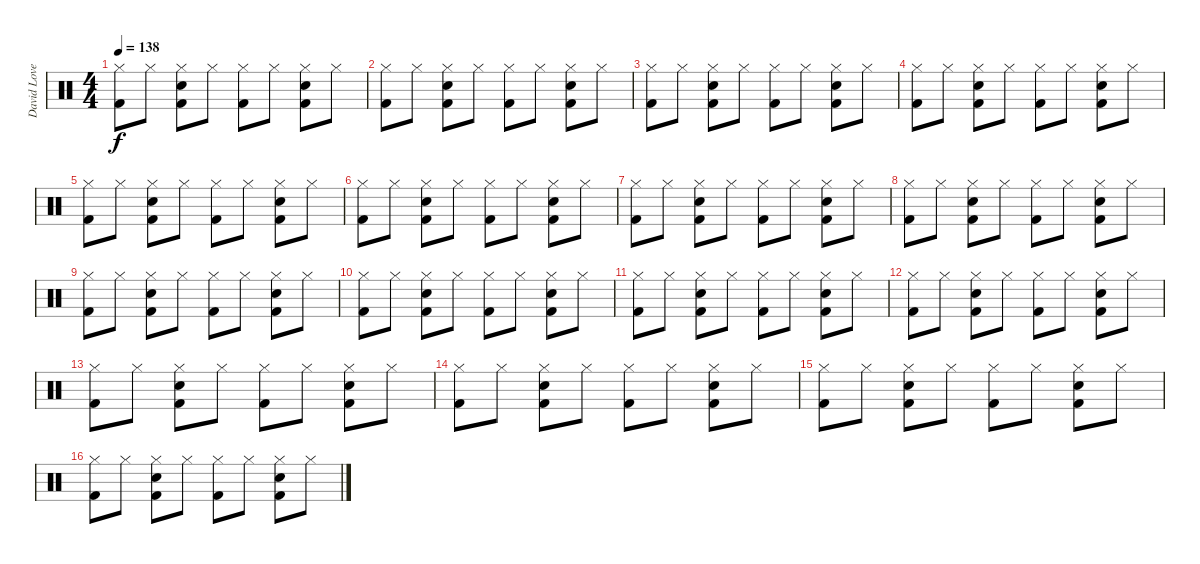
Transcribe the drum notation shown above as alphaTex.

\track ("David Lovering" "David Love") {instrument percussion}
\staff {score}
\articulation defaults
\ts (4 4)
\section ("" "")
\tempo 138
\clef neutral
\ks c
("Hi-Hat (closed)" "Kick (hit) 2").8{dy f} "Hi-Hat (closed)".8 ("Hi-Hat (closed)" "Electric Snare (hit)" "Kick (hit) 2").8 "Hi-Hat (closed)".8 ("Hi-Hat (closed)" "Kick (hit) 2").8 "Hi-Hat (closed)".8 ("Hi-Hat (closed)" "Electric Snare (hit)" "Kick (hit) 2").8 "Hi-Hat (closed)".8 |
("Hi-Hat (closed)" "Kick (hit) 2").8 "Hi-Hat (closed)".8 ("Hi-Hat (closed)" "Electric Snare (hit)" "Kick (hit) 2").8 "Hi-Hat (closed)".8 ("Hi-Hat (closed)" "Kick (hit) 2").8 "Hi-Hat (closed)".8 ("Hi-Hat (closed)" "Electric Snare (hit)" "Kick (hit) 2").8 "Hi-Hat (closed)".8 |
("Hi-Hat (closed)" "Kick (hit) 2").8 "Hi-Hat (closed)".8 ("Hi-Hat (closed)" "Electric Snare (hit)" "Kick (hit) 2").8 "Hi-Hat (closed)".8 ("Hi-Hat (closed)" "Kick (hit) 2").8 "Hi-Hat (closed)".8 ("Hi-Hat (closed)" "Electric Snare (hit)" "Kick (hit) 2").8 "Hi-Hat (closed)".8 |
("Hi-Hat (closed)" "Kick (hit) 2").8 "Hi-Hat (closed)".8 ("Hi-Hat (closed)" "Electric Snare (hit)" "Kick (hit) 2").8 "Hi-Hat (closed)".8 ("Hi-Hat (closed)" "Kick (hit) 2").8 "Hi-Hat (closed)".8 ("Hi-Hat (closed)" "Electric Snare (hit)" "Kick (hit) 2").8 "Hi-Hat (closed)".8 |
("Hi-Hat (closed)" "Kick (hit) 2").8 "Hi-Hat (closed)".8 ("Hi-Hat (closed)" "Electric Snare (hit)" "Kick (hit) 2").8 "Hi-Hat (closed)".8 ("Hi-Hat (closed)" "Kick (hit) 2").8 "Hi-Hat (closed)".8 ("Hi-Hat (closed)" "Electric Snare (hit)" "Kick (hit) 2").8 "Hi-Hat (closed)".8 |
("Hi-Hat (closed)" "Kick (hit) 2").8 "Hi-Hat (closed)".8 ("Hi-Hat (closed)" "Electric Snare (hit)" "Kick (hit) 2").8 "Hi-Hat (closed)".8 ("Hi-Hat (closed)" "Kick (hit) 2").8 "Hi-Hat (closed)".8 ("Hi-Hat (closed)" "Electric Snare (hit)" "Kick (hit) 2").8 "Hi-Hat (closed)".8 |
("Hi-Hat (closed)" "Kick (hit) 2").8 "Hi-Hat (closed)".8 ("Hi-Hat (closed)" "Electric Snare (hit)" "Kick (hit) 2").8 "Hi-Hat (closed)".8 ("Hi-Hat (closed)" "Kick (hit) 2").8 "Hi-Hat (closed)".8 ("Hi-Hat (closed)" "Electric Snare (hit)" "Kick (hit) 2").8 "Hi-Hat (closed)".8 |
("Hi-Hat (closed)" "Kick (hit) 2").8 "Hi-Hat (closed)".8 ("Hi-Hat (closed)" "Electric Snare (hit)" "Kick (hit) 2").8 "Hi-Hat (closed)".8 ("Hi-Hat (closed)" "Kick (hit) 2").8 "Hi-Hat (closed)".8 ("Hi-Hat (closed)" "Electric Snare (hit)" "Kick (hit) 2").8 "Hi-Hat (closed)".8 |
("Hi-Hat (closed)" "Kick (hit) 2").8 "Hi-Hat (closed)".8 ("Hi-Hat (closed)" "Electric Snare (hit)" "Kick (hit) 2").8 "Hi-Hat (closed)".8 ("Hi-Hat (closed)" "Kick (hit) 2").8 "Hi-Hat (closed)".8 ("Hi-Hat (closed)" "Electric Snare (hit)" "Kick (hit) 2").8 "Hi-Hat (closed)".8 |
("Hi-Hat (closed)" "Kick (hit) 2").8 "Hi-Hat (closed)".8 ("Hi-Hat (closed)" "Electric Snare (hit)" "Kick (hit) 2").8 "Hi-Hat (closed)".8 ("Hi-Hat (closed)" "Kick (hit) 2").8 "Hi-Hat (closed)".8 ("Hi-Hat (closed)" "Electric Snare (hit)" "Kick (hit) 2").8 "Hi-Hat (closed)".8 |
("Hi-Hat (closed)" "Kick (hit) 2").8 "Hi-Hat (closed)".8 ("Hi-Hat (closed)" "Electric Snare (hit)" "Kick (hit) 2").8 "Hi-Hat (closed)".8 ("Hi-Hat (closed)" "Kick (hit) 2").8 "Hi-Hat (closed)".8 ("Hi-Hat (closed)" "Electric Snare (hit)" "Kick (hit) 2").8 "Hi-Hat (closed)".8 |
("Hi-Hat (closed)" "Kick (hit) 2").8 "Hi-Hat (closed)".8 ("Hi-Hat (closed)" "Electric Snare (hit)" "Kick (hit) 2").8 "Hi-Hat (closed)".8 ("Hi-Hat (closed)" "Kick (hit) 2").8 "Hi-Hat (closed)".8 ("Hi-Hat (closed)" "Electric Snare (hit)" "Kick (hit) 2").8 "Hi-Hat (closed)".8 |
("Hi-Hat (closed)" "Kick (hit) 2").8 "Hi-Hat (closed)".8 ("Hi-Hat (closed)" "Electric Snare (hit)" "Kick (hit) 2").8 "Hi-Hat (closed)".8 ("Hi-Hat (closed)" "Kick (hit) 2").8 "Hi-Hat (closed)".8 ("Hi-Hat (closed)" "Electric Snare (hit)" "Kick (hit) 2").8 "Hi-Hat (closed)".8 |
("Hi-Hat (closed)" "Kick (hit) 2").8 "Hi-Hat (closed)".8 ("Hi-Hat (closed)" "Electric Snare (hit)" "Kick (hit) 2").8 "Hi-Hat (closed)".8 ("Hi-Hat (closed)" "Kick (hit) 2").8 "Hi-Hat (closed)".8 ("Hi-Hat (closed)" "Electric Snare (hit)" "Kick (hit) 2").8 "Hi-Hat (closed)".8 |
("Hi-Hat (closed)" "Kick (hit) 2").8 "Hi-Hat (closed)".8 ("Hi-Hat (closed)" "Electric Snare (hit)" "Kick (hit) 2").8 "Hi-Hat (closed)".8 ("Hi-Hat (closed)" "Kick (hit) 2").8 "Hi-Hat (closed)".8 ("Hi-Hat (closed)" "Electric Snare (hit)" "Kick (hit) 2").8 "Hi-Hat (closed)".8 |
("Hi-Hat (closed)" "Kick (hit) 2").8 "Hi-Hat (closed)".8 ("Hi-Hat (closed)" "Electric Snare (hit)" "Kick (hit) 2").8 "Hi-Hat (closed)".8 ("Hi-Hat (closed)" "Kick (hit) 2").8 "Hi-Hat (closed)".8 ("Hi-Hat (closed)" "Electric Snare (hit)" "Kick (hit) 2").8 "Hi-Hat (closed)".8
